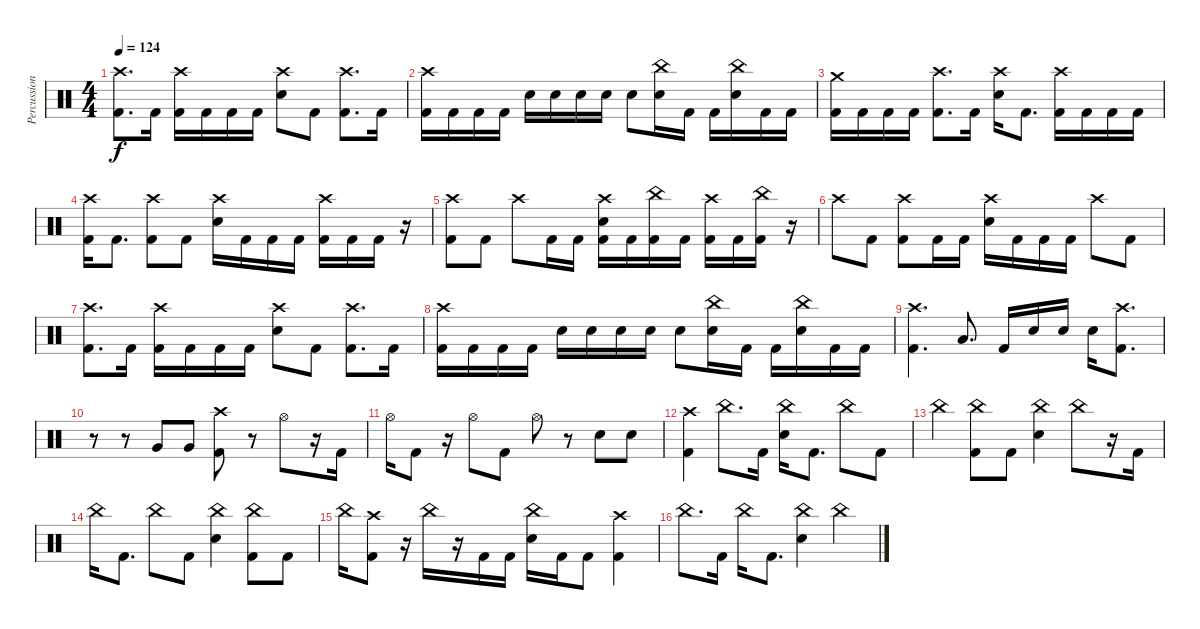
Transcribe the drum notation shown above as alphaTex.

\track ("Percussion" "Percussion") {instrument percussion}
\staff {score}
\articulation defaults
\ts (4 4)
\tempo 124
\clef neutral
\ks c
("Crash high (hit)" "Kick (hit) 2").8{d dy f} "Kick (hit) 2".16 ("Crash high (hit)" "Kick (hit) 2").16 "Kick (hit) 2".16 "Kick (hit) 2".16 "Kick (hit) 2".16 ("Crash high (hit)" "Electric Snare (hit)").8 "Kick (hit) 2".8 ("Crash high (hit)" "Kick (hit) 2").8{d} "Kick (hit) 2".16 |
("Crash high (hit)" "Kick (hit) 2").16 "Kick (hit) 2".16 "Kick (hit) 2".16 "Kick (hit) 2".16 "Electric Snare (hit)".16 "Electric Snare (hit)".16 "Electric Snare (hit)".16 "Electric Snare (hit)".16 "Electric Snare (hit)".8 ("China (hit)" "Electric Snare (hit)").16 "Kick (hit) 2".16 "Kick (hit) 2".16 ("China (hit)" "Electric Snare (hit)").16 "Kick (hit) 2".16 "Kick (hit) 2".16 |
("Crash medium (hit)" "Kick (hit) 2").16 "Kick (hit) 2".16 "Kick (hit) 2".16 "Kick (hit) 2".16 ("Crash high (hit)" "Kick (hit) 2").8{d} "Kick (hit) 2".16 ("Crash high (hit)" "Electric Snare (hit)").16 "Kick (hit) 2".8{d} ("Crash high (hit)" "Kick (hit) 2").16 "Kick (hit) 2".16 "Kick (hit) 2".16 "Kick (hit) 2".16 |
("Crash high (hit)" "Kick (hit) 2").16 "Kick (hit) 2".8{d} ("Crash high (hit)" "Kick (hit) 2").8 "Kick (hit) 2".8 ("Crash high (hit)" "Electric Snare (hit)").16 "Kick (hit) 2".16 "Kick (hit) 2".16 "Kick (hit) 2".16 ("Crash high (hit)" "Kick (hit) 2").16 "Kick (hit) 2".16 "Kick (hit) 2".16 r.16 |
("Crash high (hit)" "Kick (hit) 2").8 "Kick (hit) 2".8 "Crash high (hit)".8 "Kick (hit) 2".16 "Kick (hit) 2".16 ("Crash high (hit)" "Electric Snare (hit)" "Kick (hit) 2").16 "Kick (hit) 2".16 ("China (hit)" "Kick (hit) 2").16 "Kick (hit) 2".16 ("Crash high (hit)" "Kick (hit) 2").16 "Kick (hit) 2".16 ("China (hit)" "Kick (hit) 2").16 r.16 |
"Crash high (hit)".8 "Kick (hit) 2".8 ("Crash high (hit)" "Kick (hit) 2").8 "Kick (hit) 2".16 "Kick (hit) 2".16 ("Crash high (hit)" "Electric Snare (hit)").16 "Kick (hit) 2".16 "Kick (hit) 2".16 "Kick (hit) 2".16 "Crash high (hit)".8 "Kick (hit) 2".8 |
("Crash high (hit)" "Kick (hit) 2").8{d} "Kick (hit) 2".16 ("Crash high (hit)" "Kick (hit) 2").16 "Kick (hit) 2".16 "Kick (hit) 2".16 "Kick (hit) 2".16 ("Crash high (hit)" "Electric Snare (hit)").8 "Kick (hit) 2".8 ("Crash high (hit)" "Kick (hit) 2").8{d} "Kick (hit) 2".16 |
("Crash high (hit)" "Kick (hit) 2").16 "Kick (hit) 2".16 "Kick (hit) 2".16 "Kick (hit) 2".16 "Electric Snare (hit)".16 "Electric Snare (hit)".16 "Electric Snare (hit)".16 "Electric Snare (hit)".16 "Electric Snare (hit)".8 ("China (hit)" "Electric Snare (hit)").16 "Kick (hit) 2".16 "Kick (hit) 2".16 ("China (hit)" "Electric Snare (hit)").16 "Kick (hit) 2".16 "Kick (hit) 2".16 |
("Crash high (hit)" "Kick (hit) 2").4{d} "Low Tom (hit)".8{d} "Kick (hit) 2".16 "Electric Snare (hit)".16 "Electric Snare (hit)".16 "Electric Snare (hit)".16 ("Crash high (hit)" "Kick (hit) 2").8{d} |
r.8 r.8 "Very Low Tom (hit)".8 "Very Low Tom (hit)".8 ("Crash high (hit)" "Kick (hit) 2").8 r.8 "Hi-Hat (open)".8 r.16 "Kick (hit) 2".16 |
"Hi-Hat (open)".16 "Kick (hit) 2".8 r.16 "Hi-Hat (open)".8 "Kick (hit) 2".8 "Hi-Hat (open)".8 r.8 "Electric Snare (hit)".8 "Electric Snare (hit)".8 |
("Crash high (hit)" "Kick (hit) 2").4 "China (hit)".8{d} "Kick (hit) 2".16 ("China (hit)" "Electric Snare (hit)").16 "Kick (hit) 2".8{d} "China (hit)".8 "Kick (hit) 2".8 |
"China (hit)".4 ("China (hit)" "Kick (hit) 2").8 "Kick (hit) 2".8 ("China (hit)" "Electric Snare (hit)").4 "China (hit)".8 r.16 "Kick (hit) 2".16 |
"China (hit)".16 "Kick (hit) 2".8{d} "China (hit)".8 "Kick (hit) 2".8 ("China (hit)" "Electric Snare (hit)").4 ("China (hit)" "Kick (hit) 2").8 "Kick (hit) 2".8 |
"China (hit)".16 ("Crash high (hit)" "Kick (hit) 2").8 r.16 "China (hit)".16 r.16 "Kick (hit) 2".16 "Kick (hit) 2".16 ("China (hit)" "Electric Snare (hit)").16 "Kick (hit) 2".16 "Kick (hit) 2".8 ("Crash high (hit)" "Kick (hit) 2").4 |
"China (hit)".8{d} "Kick (hit) 2".16 "China (hit)".16 "Kick (hit) 2".8{d} ("China (hit)" "Electric Snare (hit)").4 "China (hit)".4
